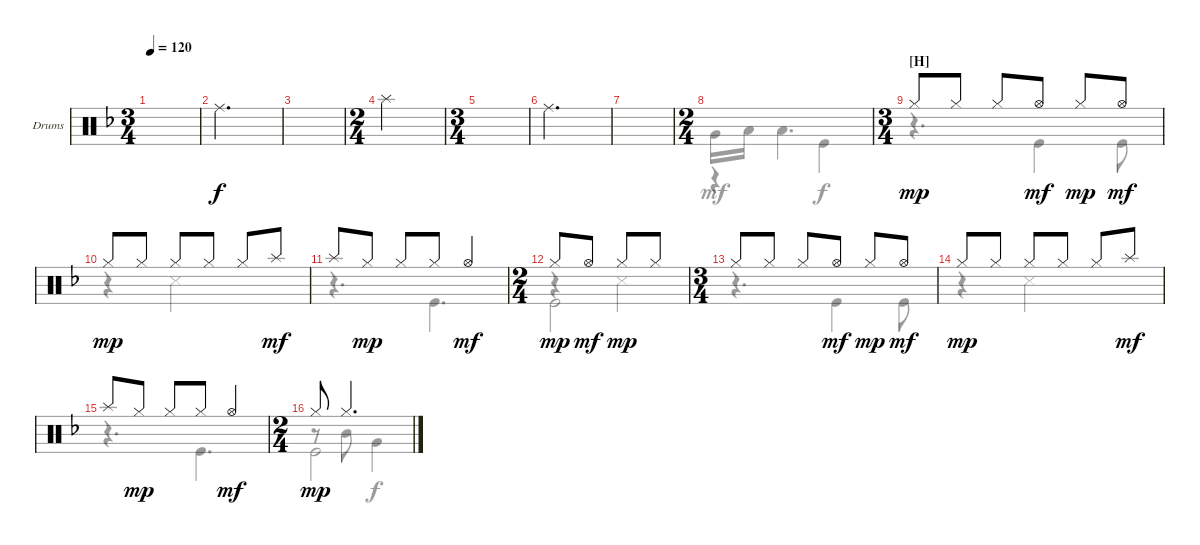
\defaultSystemsLayout 4
\bracketExtendMode groupsimilarinstruments
\firstSystemTrackNameOrientation horizontal
\otherSystemsTrackNameOrientation horizontal
\track ("Drumkit" "Drums") {instrument percussion}
\staff {score}
\articulation defaults
\voice
\ts (3 4)
\tempo 120
\clef neutral
\ks f
|
"Ride (middle)".2{d} |
|
\ts (2 4)
"Splash (hit)".2 |
\ts (3 4)
|
"Ride (middle)".2{d} |
|
\ts (2 4)
|
\ts (3 4)
\section ("H" "")
"Hi-Hat (closed)".8{dy mp} "Hi-Hat (closed)".8 "Hi-Hat (closed)".8 "Hi-Hat (open)".8{dy mf} "Hi-Hat (closed)".8{dy mp} "Hi-Hat (open)".8{dy mf} |
"Hi-Hat (closed)".8{dy mp} "Hi-Hat (closed)".8 "Hi-Hat (closed)".8 "Hi-Hat (closed)".8 "Hi-Hat (closed)".8 "Splash (hit)".8{dy mf} |
"Splash (hit)".8 "Hi-Hat (closed)".8{dy mp} "Hi-Hat (closed)".8 "Hi-Hat (closed)".8 "Hi-Hat (open)".4{dy mf} |
\ts (2 4)
"Hi-Hat (closed)".8{dy mp} "Hi-Hat (open)".8{dy mf} "Hi-Hat (closed)".8{dy mp} "Hi-Hat (closed)".8 |
\ts (3 4)
"Hi-Hat (closed)".8 "Hi-Hat (closed)".8 "Hi-Hat (closed)".8 "Hi-Hat (open)".8{dy mf} "Hi-Hat (closed)".8{dy mp} "Hi-Hat (open)".8{dy mf} |
"Hi-Hat (closed)".8{dy mp} "Hi-Hat (closed)".8 "Hi-Hat (closed)".8 "Hi-Hat (closed)".8 "Hi-Hat (closed)".8 "Splash (hit)".8{dy mf} |
"Splash (hit)".8 "Hi-Hat (closed)".8{dy mp} "Hi-Hat (closed)".8 "Hi-Hat (closed)".8 "Hi-Hat (open)".4{dy mf} |
\ts (2 4)
"Hi-Hat (closed)".8{dy mp} "Hi-Hat (closed)".4{d}
\voice
\clef neutral
\ottava regular
\simile none
\ks f
|
|
|
|
|
|
|
"Very Low Tom (hit)".16{dy mf} "Low Tom (hit)".16 "Low Tom (hit)".4{d} |
|
r.4 "Snare (side stick) 3".2 |
|
r.4 "Snare (side stick) 3".4 |
|
r.4 "Snare (side stick) 3".2 |
|
r.8 "Mid Tom (hit)".8 "Very Low Tom (hit)".4{dy f}
\voice
\clef neutral
\ottava regular
\simile none
\ks f
|
|
|
|
|
|
|
r.4 "Kick (hit)".4 |
r.4{d} "Kick (hit)".4{dy f} "Kick (hit)".8 |
|
r.4{d} "Kick (hit)".4{d} |
"Kick (hit)".2 |
r.4{d} "Kick (hit)".4 "Kick (hit)".8 |
|
r.4{d} "Kick (hit)".4{d} |
"Kick (hit)".2
